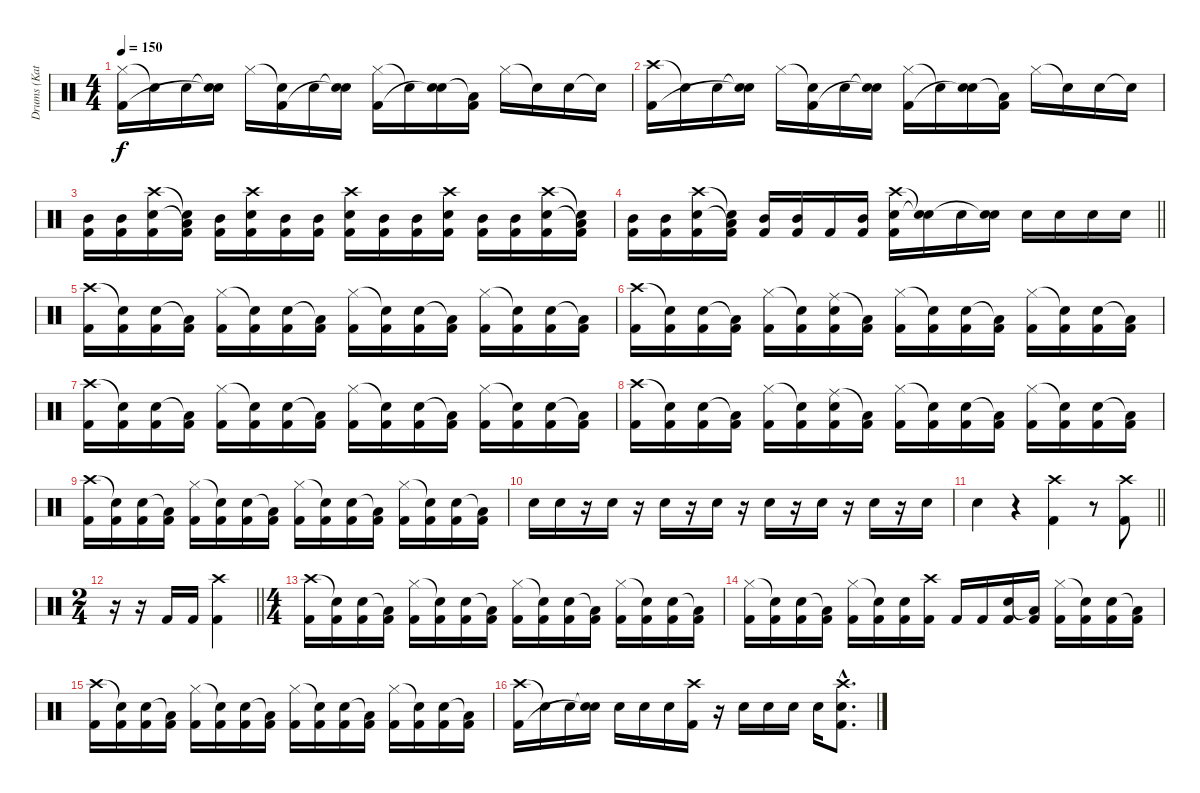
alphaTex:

\track ("Drums (Katsuji)" "Drums (Kat") {instrument percussion}
\staff {score}
\articulation defaults
\ts (4 4)
\tempo 150
\clef neutral
\ks c
("Hi-Hat (closed)" "Kick (hit) 2").16{dy f} "Snare (hit)"{t}.16 "Snare (hit) 2".16 ("Snare (hit)"{t} "Snare (hit)"{t}).16 "Hi-Hat (closed)".16 ("Snare (hit)"{t} "Kick (hit) 2").16 "Snare (hit) 2".16 ("Snare (hit)"{t} "Snare (hit)"{t}).16 ("Hi-Hat (closed)" "Kick (hit) 2").16 "Snare (hit)"{t}.16 ("Snare (hit) 2" "Snare (hit)"{t}).16 ("Low Floor Tom (hit)"{t} "Kick (hit) 2").16 "Hi-Hat (closed)".16 "Snare (hit)"{t}.16 "Snare (hit) 2".16 "Snare (hit)"{t}.16 |
("Crash high (hit)" "Kick (hit) 2").16 "Snare (hit)"{t}.16 "Snare (hit) 2".16 ("Snare (hit)"{t} "Snare (hit)"{t}).16 "Hi-Hat (closed)".16 ("Snare (hit)"{t} "Kick (hit) 2").16 "Snare (hit) 2".16 ("Snare (hit)"{t} "Snare (hit)"{t}).16 ("Hi-Hat (closed)" "Kick (hit) 2").16 "Snare (hit)"{t}.16 ("Snare (hit) 2" "Snare (hit)"{t}).16 ("Low Floor Tom (hit)"{t} "Kick (hit) 2").16 "Hi-Hat (closed)".16 "Snare (hit)"{t}.16 "Snare (hit) 2".16 "Snare (hit)"{t}.16 |
("Mid Tom (hit)" "Kick (hit) 2").16 ("Mid Tom (hit)" "Kick (hit) 2").16 ("Crash high (hit)" "Snare (hit) 2" "Kick (hit) 2").16 ("Snare (hit)"{t} "Low Floor Tom (hit)"{t} "Kick (hit) 2").16 ("Mid Tom (hit)" "Kick (hit) 2").16 ("Crash high (hit)" "Snare (hit) 2" "Kick (hit) 2").16 ("Mid Tom (hit)" "Kick (hit) 2").16 ("Mid Tom (hit)" "Kick (hit) 2").16 ("Crash high (hit)" "Snare (hit) 2" "Kick (hit) 2").16 ("Mid Tom (hit)" "Kick (hit) 2").16 ("Mid Tom (hit)" "Kick (hit) 2").16 ("Crash high (hit)" "Snare (hit) 2" "Kick (hit) 2").16 ("Mid Tom (hit)" "Kick (hit) 2").16 ("Mid Tom (hit)" "Kick (hit) 2").16 ("Crash high (hit)" "Snare (hit) 2" "Kick (hit) 2").16 ("Snare (hit)"{t} "Low Floor Tom (hit)"{t} "Kick (hit) 2").16 |
\barLineRight lightlight
("Mid Tom (hit)" "Kick (hit) 2").16 ("Mid Tom (hit)" "Kick (hit) 2").16 ("Crash high (hit)" "Snare (hit) 2" "Kick (hit) 2").16 ("Snare (hit)"{t} "Low Floor Tom (hit)"{t} "Kick (hit) 2").16 ("Mid Tom (hit)" "Kick (hit) 2").16 ("Mid Tom (hit)" "Kick (hit) 2").16 "Kick (hit) 2".16 ("Mid Tom (hit)" "Kick (hit) 2").16 ("Crash high (hit)" "Snare (hit) 2" "Kick (hit) 2").16 ("Snare (hit)"{t} "Snare (hit)"{t}).16 "Snare (hit) 2".16 ("Snare (hit) 2" "Snare (hit)"{t}).16 "Snare (hit) 2".16 "Snare (hit) 2".16 "Snare (hit) 2".16 "Snare (hit) 2".16 |
("Crash high (hit)" "Kick (hit) 2").16 ("Snare (hit)"{t} "Kick (hit) 2").16 ("Snare (hit) 2" "Kick (hit) 2").16 ("Low Floor Tom (hit)"{t} "Kick (hit) 2").16 ("Hi-Hat (closed)" "Kick (hit) 2").16 ("Snare (hit)"{t} "Kick (hit) 2").16 ("Snare (hit) 2" "Kick (hit) 2").16 ("Low Floor Tom (hit)"{t} "Kick (hit) 2").16 ("Hi-Hat (closed)" "Kick (hit) 2").16 ("Snare (hit)"{t} "Kick (hit) 2").16 ("Snare (hit) 2" "Kick (hit) 2").16 ("Low Floor Tom (hit)"{t} "Kick (hit) 2").16 ("Hi-Hat (closed)" "Kick (hit) 2").16 ("Snare (hit)"{t} "Kick (hit) 2").16 ("Snare (hit) 2" "Kick (hit) 2").16 ("Low Floor Tom (hit)"{t} "Kick (hit) 2").16 |
("Crash high (hit)" "Kick (hit) 2").16 ("Snare (hit)"{t} "Kick (hit) 2").16 ("Snare (hit) 2" "Kick (hit) 2").16 ("Low Floor Tom (hit)"{t} "Kick (hit) 2").16 ("Hi-Hat (closed)" "Kick (hit) 2").16 ("Snare (hit)"{t} "Kick (hit) 2").16 ("Ride (middle)" "Snare (hit) 2" "Kick (hit) 2").16 ("Low Floor Tom (hit)"{t} "Kick (hit) 2").16 ("Hi-Hat (closed)" "Kick (hit) 2").16 ("Snare (hit)"{t} "Kick (hit) 2").16 ("Snare (hit) 2" "Kick (hit) 2").16 ("Low Floor Tom (hit)"{t} "Kick (hit) 2").16 ("Hi-Hat (closed)" "Kick (hit) 2").16 ("Snare (hit)"{t} "Kick (hit) 2").16 ("Snare (hit) 2" "Kick (hit) 2").16 ("Low Floor Tom (hit)"{t} "Kick (hit) 2").16 |
("Crash high (hit)" "Kick (hit) 2").16 ("Snare (hit)"{t} "Kick (hit) 2").16 ("Snare (hit) 2" "Kick (hit) 2").16 ("Low Floor Tom (hit)"{t} "Kick (hit) 2").16 ("Hi-Hat (closed)" "Kick (hit) 2").16 ("Snare (hit)"{t} "Kick (hit) 2").16 ("Snare (hit) 2" "Kick (hit) 2").16 ("Low Floor Tom (hit)"{t} "Kick (hit) 2").16 ("Hi-Hat (closed)" "Kick (hit) 2").16 ("Snare (hit)"{t} "Kick (hit) 2").16 ("Snare (hit) 2" "Kick (hit) 2").16 ("Low Floor Tom (hit)"{t} "Kick (hit) 2").16 ("Hi-Hat (closed)" "Kick (hit) 2").16 ("Snare (hit)"{t} "Kick (hit) 2").16 ("Snare (hit) 2" "Kick (hit) 2").16 ("Low Floor Tom (hit)"{t} "Kick (hit) 2").16 |
("Crash high (hit)" "Kick (hit) 2").16 ("Snare (hit)"{t} "Kick (hit) 2").16 ("Snare (hit) 2" "Kick (hit) 2").16 ("Low Floor Tom (hit)"{t} "Kick (hit) 2").16 ("Hi-Hat (closed)" "Kick (hit) 2").16 ("Snare (hit)"{t} "Kick (hit) 2").16 ("Ride (middle)" "Snare (hit) 2" "Kick (hit) 2").16 ("Low Floor Tom (hit)"{t} "Kick (hit) 2").16 ("Hi-Hat (closed)" "Kick (hit) 2").16 ("Snare (hit)"{t} "Kick (hit) 2").16 ("Snare (hit) 2" "Kick (hit) 2").16 ("Low Floor Tom (hit)"{t} "Kick (hit) 2").16 ("Hi-Hat (closed)" "Kick (hit) 2").16 ("Snare (hit)"{t} "Kick (hit) 2").16 ("Snare (hit) 2" "Kick (hit) 2").16 ("Low Floor Tom (hit)"{t} "Kick (hit) 2").16 |
("Crash high (hit)" "Kick (hit) 2").16 ("Snare (hit)"{t} "Kick (hit) 2").16 ("Snare (hit) 2" "Kick (hit) 2").16 ("Low Floor Tom (hit)"{t} "Kick (hit) 2").16 ("Hi-Hat (closed)" "Kick (hit) 2").16 ("Snare (hit)"{t} "Kick (hit) 2").16 ("Snare (hit) 2" "Kick (hit) 2").16 ("Low Floor Tom (hit)"{t} "Kick (hit) 2").16 ("Hi-Hat (closed)" "Kick (hit) 2").16 ("Snare (hit)"{t} "Kick (hit) 2").16 ("Snare (hit) 2" "Kick (hit) 2").16 ("Low Floor Tom (hit)"{t} "Kick (hit) 2").16 ("Hi-Hat (closed)" "Kick (hit) 2").16 ("Snare (hit)"{t} "Kick (hit) 2").16 ("Snare (hit) 2" "Kick (hit) 2").16 ("Low Floor Tom (hit)"{t} "Kick (hit) 2").16 |
"Snare (hit) 2".16 "Snare (hit) 2".16 r.16 "Snare (hit) 2".16 r.16 "Snare (hit) 2".16 r.16 "Snare (hit) 2".16 r.16 "Snare (hit) 2".16 r.16 "Snare (hit) 2".16 r.16 "Snare (hit) 2".16 r.16 "Snare (hit) 2".16 |
\barLineRight lightlight "Snare (hit) 2".4
r.4 ("Crash high (hit)" "Kick (hit) 2").4 r.8 ("Crash high (hit)" "Kick (hit) 2").8 |
\ts (2 4)
\barLineRight lightlight
r.16 r.16 "Kick (hit) 2".16 "Kick (hit) 2".16 ("Crash high (hit)" "Kick (hit) 2").4 |
\ts (4 4)
("Crash high (hit)" "Kick (hit) 2").16 ("Snare (hit)"{t} "Kick (hit) 2").16 ("Snare (hit) 2" "Kick (hit) 2").16 ("Low Floor Tom (hit)"{t} "Kick (hit) 2").16 ("Hi-Hat (closed)" "Kick (hit) 2").16 ("Snare (hit)"{t} "Kick (hit) 2").16 ("Snare (hit) 2" "Kick (hit) 2").16 ("Low Floor Tom (hit)"{t} "Kick (hit) 2").16 ("Hi-Hat (closed)" "Kick (hit) 2").16 ("Snare (hit)"{t} "Kick (hit) 2").16 ("Snare (hit) 2" "Kick (hit) 2").16 ("Low Floor Tom (hit)"{t} "Kick (hit) 2").16 ("Hi-Hat (closed)" "Kick (hit) 2").16 ("Snare (hit)"{t} "Kick (hit) 2").16 ("Snare (hit) 2" "Kick (hit) 2").16 ("Low Floor Tom (hit)"{t} "Kick (hit) 2").16 |
("Hi-Hat (closed)" "Kick (hit) 2").16 ("Snare (hit)"{t} "Kick (hit) 2").16 ("Snare (hit) 2" "Kick (hit) 2").16 ("Low Floor Tom (hit)"{t} "Kick (hit) 2").16 ("Hi-Hat (closed)" "Kick (hit) 2").16 ("Snare (hit)"{t} "Kick (hit) 2").16 ("Snare (hit) 2" "Kick (hit) 2").16 ("Crash high (hit)" "Kick (hit) 2").16 "Kick (hit) 2".16 "Kick (hit) 2".16 ("Snare (hit) 2" "Kick (hit) 2").16 ("Low Floor Tom (hit)"{t} "Kick (hit) 2").16 ("Hi-Hat (closed)" "Kick (hit) 2").16 ("Snare (hit)"{t} "Kick (hit) 2").16 ("Snare (hit) 2" "Kick (hit) 2").16 ("Low Floor Tom (hit)"{t} "Kick (hit) 2").16 |
("Crash high (hit)" "Kick (hit) 2").16 ("Snare (hit)"{t} "Kick (hit) 2").16 ("Snare (hit) 2" "Kick (hit) 2").16 ("Low Floor Tom (hit)"{t} "Kick (hit) 2").16 ("Hi-Hat (closed)" "Kick (hit) 2").16 ("Snare (hit)"{t} "Kick (hit) 2").16 ("Snare (hit) 2" "Kick (hit) 2").16 ("Low Floor Tom (hit)"{t} "Kick (hit) 2").16 ("Hi-Hat (closed)" "Kick (hit) 2").16 ("Snare (hit)"{t} "Kick (hit) 2").16 ("Snare (hit) 2" "Kick (hit) 2").16 ("Low Floor Tom (hit)"{t} "Kick (hit) 2").16 ("Hi-Hat (closed)" "Kick (hit) 2").16 ("Snare (hit)"{t} "Kick (hit) 2").16 ("Snare (hit) 2" "Kick (hit) 2").16 ("Low Floor Tom (hit)"{t} "Kick (hit) 2").16 |
("Crash high (hit)" "Kick (hit) 2").16 "Snare (hit)"{t}.16 "Snare (hit) 2".16 ("Snare (hit)"{t} "Snare (hit)"{t}).16 "Snare (hit) 2".16 "Snare (hit) 2".16 "Snare (hit) 2".16 ("Crash high (hit)" "Kick (hit) 2").16 r.16 "Snare (hit) 2".16 "Snare (hit) 2".16 "Snare (hit) 2".16 "Snare (hit) 2".16 ("Crash high (hit)"{hac} "Snare (hit) 2"{hac} "Kick (hit) 2"{hac}).8{d}
